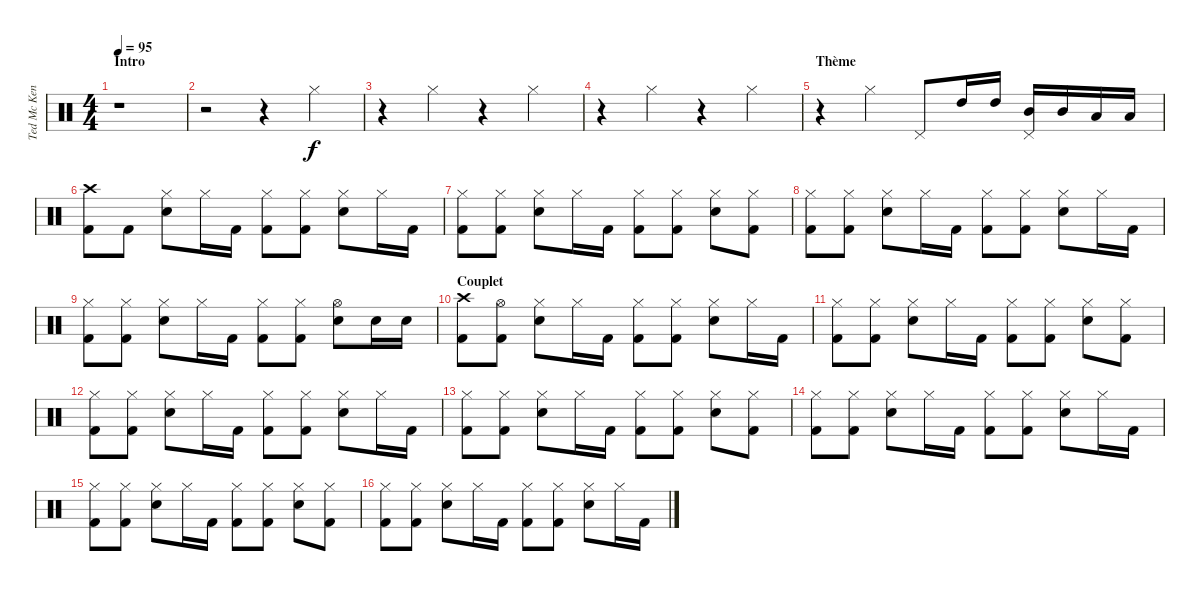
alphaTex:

\track ("Ted Mc Kenna" "Ted Mc Ken") {instrument percussion}
\staff {score}
\articulation defaults
\ts (4 4)
\section ("" "Intro")
\tempo 95
\clef neutral
\ks c
r.1{dy f} |
r.2 r.4 "Hi-Hat (closed)".4 |
r.4 "Hi-Hat (closed)".4 r.4 "Hi-Hat (closed)".4 |
r.4 "Hi-Hat (closed)".4 r.4 "Hi-Hat (closed)".4 |
\section ("" "Thème")
r.4 "Hi-Hat (closed)".4 "Pedal Hi-Hat (hit)".8 "High Tom (hit)".16 "High Tom (hit)".16 ("Mid Tom (hit)" "Pedal Hi-Hat (hit)").16 "Mid Tom (hit)".16 "Low Tom (hit)".16 "Low Tom (hit)".16 |
("Crash high (hit)" "Kick (hit) 2").8 "Kick (hit) 2".8 ("Hi-Hat (closed)" "Snare (hit) 2").8 "Hi-Hat (closed)".16 "Kick (hit) 2".16 ("Hi-Hat (closed)" "Kick (hit) 2").8 ("Hi-Hat (closed)" "Kick (hit) 2").8 ("Hi-Hat (closed)" "Snare (hit) 2").8 "Hi-Hat (closed)".16 "Kick (hit) 2".16 |
("Hi-Hat (closed)" "Kick (hit) 2").8 ("Hi-Hat (closed)" "Kick (hit) 2").8 ("Hi-Hat (closed)" "Snare (hit) 2").8 "Hi-Hat (closed)".16 "Kick (hit) 2".16 ("Hi-Hat (closed)" "Kick (hit) 2").8 ("Hi-Hat (closed)" "Kick (hit) 2").8 ("Hi-Hat (closed)" "Snare (hit) 2").8 ("Hi-Hat (closed)" "Kick (hit) 2").8 |
("Hi-Hat (closed)" "Kick (hit) 2").8 ("Hi-Hat (closed)" "Kick (hit) 2").8 ("Hi-Hat (closed)" "Snare (hit) 2").8 "Hi-Hat (closed)".16 "Kick (hit) 2".16 ("Hi-Hat (closed)" "Kick (hit) 2").8 ("Hi-Hat (closed)" "Kick (hit) 2").8 ("Hi-Hat (closed)" "Snare (hit) 2").8 "Hi-Hat (closed)".16 "Kick (hit) 2".16 |
("Hi-Hat (closed)" "Kick (hit) 2").8 ("Hi-Hat (closed)" "Kick (hit) 2").8 ("Hi-Hat (closed)" "Snare (hit) 2").8 "Hi-Hat (closed)".16 "Kick (hit) 2".16 ("Hi-Hat (closed)" "Kick (hit) 2").8 ("Hi-Hat (closed)" "Kick (hit) 2").8 ("Hi-Hat (open)" "Snare (hit) 2").8 "Snare (hit) 2".16 "Snare (hit) 2".16 |
\section ("" "Couplet")
("Crash high (hit)" "Kick (hit) 2").8 ("Hi-Hat (open)" "Kick (hit) 2").8 ("Hi-Hat (closed)" "Snare (hit) 2").8 "Hi-Hat (closed)".16 "Kick (hit) 2".16 ("Hi-Hat (closed)" "Kick (hit) 2").8 ("Hi-Hat (closed)" "Kick (hit) 2").8 ("Hi-Hat (closed)" "Snare (hit) 2").8 "Hi-Hat (closed)".16 "Kick (hit) 2".16 |
("Hi-Hat (closed)" "Kick (hit) 2").8 ("Hi-Hat (closed)" "Kick (hit) 2").8 ("Hi-Hat (closed)" "Snare (hit) 2").8 "Hi-Hat (closed)".16 "Kick (hit) 2".16 ("Hi-Hat (closed)" "Kick (hit) 2").8 ("Hi-Hat (closed)" "Kick (hit) 2").8 ("Hi-Hat (closed)" "Snare (hit) 2").8 ("Hi-Hat (closed)" "Kick (hit) 2").8 |
("Hi-Hat (closed)" "Kick (hit) 2").8 ("Hi-Hat (closed)" "Kick (hit) 2").8 ("Hi-Hat (closed)" "Snare (hit) 2").8 "Hi-Hat (closed)".16 "Kick (hit) 2".16 ("Hi-Hat (closed)" "Kick (hit) 2").8 ("Hi-Hat (closed)" "Kick (hit) 2").8 ("Hi-Hat (closed)" "Snare (hit) 2").8 "Hi-Hat (closed)".16 "Kick (hit) 2".16 |
("Hi-Hat (closed)" "Kick (hit) 2").8 ("Hi-Hat (closed)" "Kick (hit) 2").8 ("Hi-Hat (closed)" "Snare (hit) 2").8 "Hi-Hat (closed)".16 "Kick (hit) 2".16 ("Hi-Hat (closed)" "Kick (hit) 2").8 ("Hi-Hat (closed)" "Kick (hit) 2").8 ("Hi-Hat (closed)" "Snare (hit) 2").8 ("Hi-Hat (closed)" "Kick (hit) 2").8 |
("Hi-Hat (closed)" "Kick (hit) 2").8 ("Hi-Hat (closed)" "Kick (hit) 2").8 ("Hi-Hat (closed)" "Snare (hit) 2").8 "Hi-Hat (closed)".16 "Kick (hit) 2".16 ("Hi-Hat (closed)" "Kick (hit) 2").8 ("Hi-Hat (closed)" "Kick (hit) 2").8 ("Hi-Hat (closed)" "Snare (hit) 2").8 "Hi-Hat (closed)".16 "Kick (hit) 2".16 |
("Hi-Hat (closed)" "Kick (hit) 2").8 ("Hi-Hat (closed)" "Kick (hit) 2").8 ("Hi-Hat (closed)" "Snare (hit) 2").8 "Hi-Hat (closed)".16 "Kick (hit) 2".16 ("Hi-Hat (closed)" "Kick (hit) 2").8 ("Hi-Hat (closed)" "Kick (hit) 2").8 ("Hi-Hat (closed)" "Snare (hit) 2").8 ("Hi-Hat (closed)" "Kick (hit) 2").8 |
("Hi-Hat (closed)" "Kick (hit) 2").8 ("Hi-Hat (closed)" "Kick (hit) 2").8 ("Hi-Hat (closed)" "Snare (hit) 2").8 "Hi-Hat (closed)".16 "Kick (hit) 2".16 ("Hi-Hat (closed)" "Kick (hit) 2").8 ("Hi-Hat (closed)" "Kick (hit) 2").8 ("Hi-Hat (closed)" "Snare (hit) 2").8 "Hi-Hat (closed)".16 "Kick (hit) 2".16
